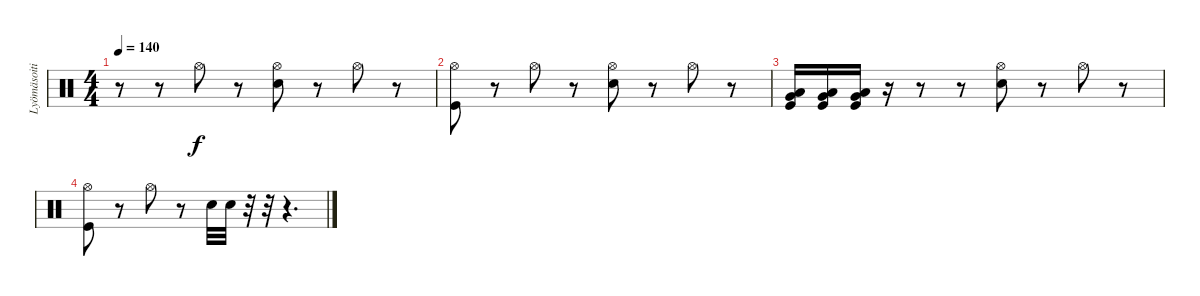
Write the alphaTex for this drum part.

\track ("Lyömäsoitin" "Lyömäsoiti") {instrument percussion}
\staff {score}
\articulation defaults
\ts (4 4)
\tempo 140
\clef neutral
\ks c
r.8{dy f} r.8 "Hi-Hat (open)".8 r.8 ("Hi-Hat (open)" "Electric Snare (hit)").8 r.8 "Hi-Hat (open)".8 r.8 |
("Hi-Hat (open)" "Kick (hit)").8 r.8 "Hi-Hat (open)".8 r.8 ("Hi-Hat (open)" "Electric Snare (hit)").8 r.8 "Hi-Hat (open)".8 r.8 |
("Very Low Tom (hit)" "Low Floor Tom (hit)" "Kick (hit)").16 ("Very Low Tom (hit)" "Low Floor Tom (hit)" "Kick (hit)").16 ("Very Low Tom (hit)" "Low Floor Tom (hit)" "Kick (hit)").16 r.16 r.8 r.8 ("Hi-Hat (open)" "Electric Snare (hit)").8 r.8 "Hi-Hat (open)".8 r.8 |
("Hi-Hat (open)" "Kick (hit)").8 r.8 "Hi-Hat (open)".8 r.8 "Electric Snare (hit)".32 "Electric Snare (hit)".32 r.32 r.32 r.4{d}
